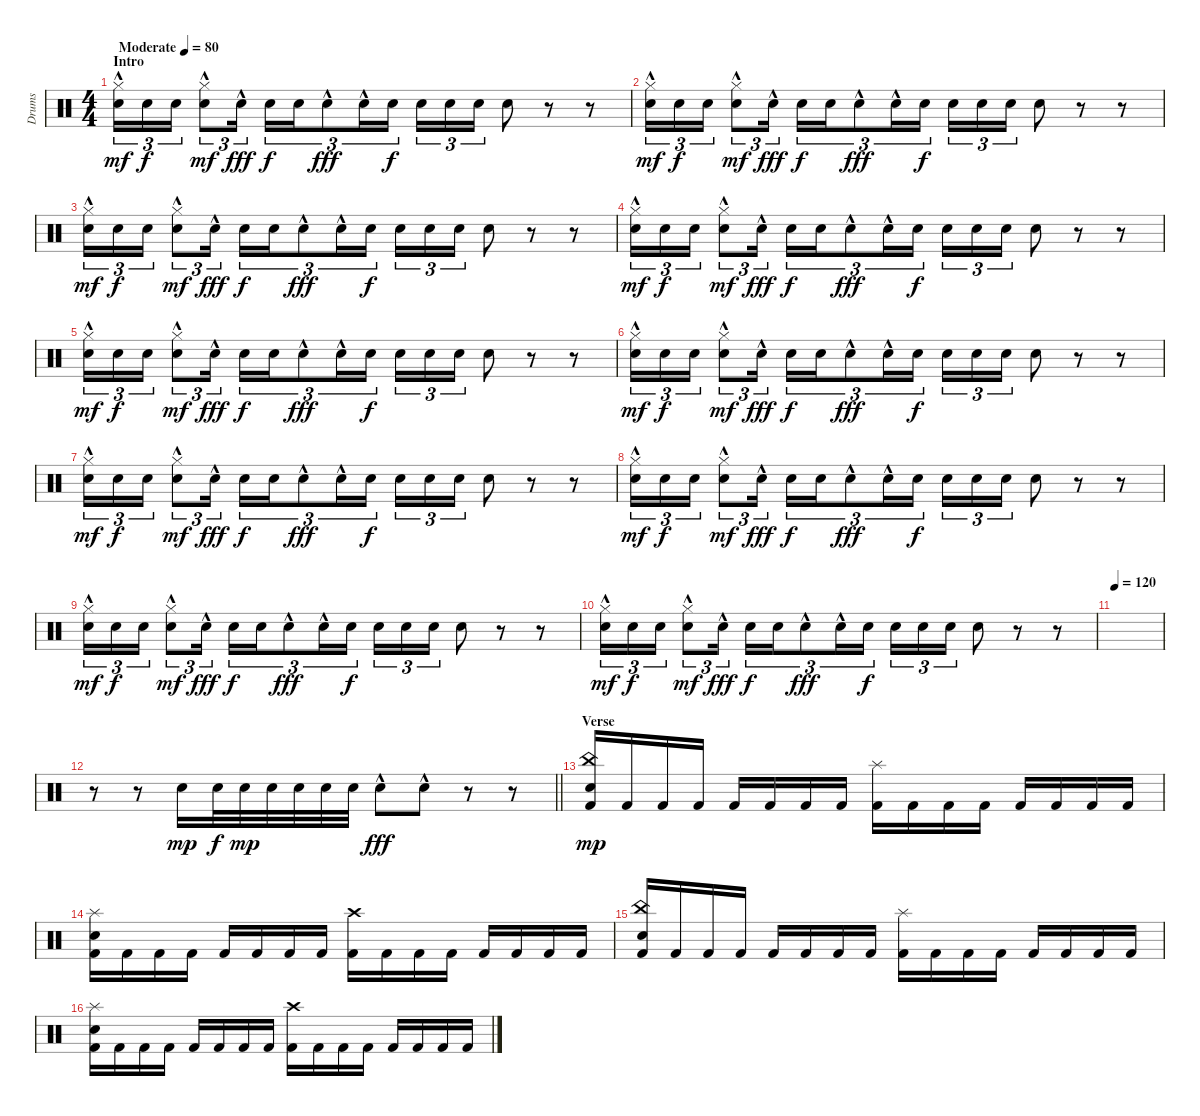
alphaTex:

\track ("Drums" "Drums") {instrument percussion}
\staff {score}
\articulation defaults
\ts (4 4)
\section ("" "Intro")
\tempo (80 "Moderate")
\clef neutral
\ks c
("Hi-Hat (closed)"{hac} "Snare (hit) 2").16{tu (3 2) dy mf volume 5} "Snare (hit) 2".16{tu (3 2) dy f} "Snare (hit) 2".16{tu (3 2)} ("Hi-Hat (closed)"{hac} "Snare (hit) 2").8{tu (3 2) dy mf} "Electric Snare (hit)"{hac}.16{tu (3 2) dy fff} "Electric Snare (hit)".16{tu (3 2) dy f} "Electric Snare (hit)".16{tu (3 2)} "Electric Snare (hit)"{hac}.8{tu (3 2) dy fff} "Electric Snare (hit)"{hac}.16{tu (3 2)} "Electric Snare (hit)".16{tu (3 2) dy f} "Electric Snare (hit)".16{tu (3 2)} "Electric Snare (hit)".16{tu (3 2)} "Electric Snare (hit)".16{tu (3 2)} "Electric Snare (hit)".8 r.8 r.8 |
("Hi-Hat (closed)"{hac} "Snare (hit) 2").16{tu (3 2) dy mf} "Snare (hit) 2".16{tu (3 2) dy f} "Snare (hit) 2".16{tu (3 2)} ("Hi-Hat (closed)"{hac} "Snare (hit) 2").8{tu (3 2) dy mf} "Electric Snare (hit)"{hac}.16{tu (3 2) dy fff} "Electric Snare (hit)".16{tu (3 2) dy f} "Electric Snare (hit)".16{tu (3 2)} "Electric Snare (hit)"{hac}.8{tu (3 2) dy fff} "Electric Snare (hit)"{hac}.16{tu (3 2)} "Electric Snare (hit)".16{tu (3 2) dy f} "Electric Snare (hit)".16{tu (3 2)} "Electric Snare (hit)".16{tu (3 2)} "Electric Snare (hit)".16{tu (3 2)} "Electric Snare (hit)".8 r.8 r.8 |
("Hi-Hat (closed)"{hac} "Snare (hit) 2").16{tu (3 2) dy mf} "Snare (hit) 2".16{tu (3 2) dy f} "Snare (hit) 2".16{tu (3 2)} ("Hi-Hat (closed)"{hac} "Snare (hit) 2").8{tu (3 2) dy mf} "Electric Snare (hit)"{hac}.16{tu (3 2) dy fff} "Electric Snare (hit)".16{tu (3 2) dy f} "Electric Snare (hit)".16{tu (3 2)} "Electric Snare (hit)"{hac}.8{tu (3 2) dy fff} "Electric Snare (hit)"{hac}.16{tu (3 2)} "Electric Snare (hit)".16{tu (3 2) dy f} "Electric Snare (hit)".16{tu (3 2)} "Electric Snare (hit)".16{tu (3 2)} "Electric Snare (hit)".16{tu (3 2)} "Electric Snare (hit)".8 r.8 r.8 |
("Hi-Hat (closed)"{hac} "Snare (hit) 2").16{tu (3 2) dy mf} "Snare (hit) 2".16{tu (3 2) dy f} "Snare (hit) 2".16{tu (3 2)} ("Hi-Hat (closed)"{hac} "Snare (hit) 2").8{tu (3 2) dy mf} "Electric Snare (hit)"{hac}.16{tu (3 2) dy fff} "Electric Snare (hit)".16{tu (3 2) dy f} "Electric Snare (hit)".16{tu (3 2)} "Electric Snare (hit)"{hac}.8{tu (3 2) dy fff} "Electric Snare (hit)"{hac}.16{tu (3 2)} "Electric Snare (hit)".16{tu (3 2) dy f} "Electric Snare (hit)".16{tu (3 2)} "Electric Snare (hit)".16{tu (3 2)} "Electric Snare (hit)".16{tu (3 2)} "Electric Snare (hit)".8 r.8 r.8 |
("Hi-Hat (closed)"{hac} "Snare (hit) 2").16{tu (3 2) dy mf volume 10} "Snare (hit) 2".16{tu (3 2) dy f} "Snare (hit) 2".16{tu (3 2)} ("Hi-Hat (closed)"{hac} "Snare (hit) 2").8{tu (3 2) dy mf} "Electric Snare (hit)"{hac}.16{tu (3 2) dy fff} "Electric Snare (hit)".16{tu (3 2) dy f} "Electric Snare (hit)".16{tu (3 2)} "Electric Snare (hit)"{hac}.8{tu (3 2) dy fff} "Electric Snare (hit)"{hac}.16{tu (3 2)} "Electric Snare (hit)".16{tu (3 2) dy f} "Electric Snare (hit)".16{tu (3 2)} "Electric Snare (hit)".16{tu (3 2)} "Electric Snare (hit)".16{tu (3 2)} "Electric Snare (hit)".8 r.8 r.8 |
("Hi-Hat (closed)"{hac} "Snare (hit) 2").16{tu (3 2) dy mf} "Snare (hit) 2".16{tu (3 2) dy f} "Snare (hit) 2".16{tu (3 2)} ("Hi-Hat (closed)"{hac} "Snare (hit) 2").8{tu (3 2) dy mf} "Electric Snare (hit)"{hac}.16{tu (3 2) dy fff} "Electric Snare (hit)".16{tu (3 2) dy f} "Electric Snare (hit)".16{tu (3 2)} "Electric Snare (hit)"{hac}.8{tu (3 2) dy fff} "Electric Snare (hit)"{hac}.16{tu (3 2)} "Electric Snare (hit)".16{tu (3 2) dy f} "Electric Snare (hit)".16{tu (3 2)} "Electric Snare (hit)".16{tu (3 2)} "Electric Snare (hit)".16{tu (3 2)} "Electric Snare (hit)".8 r.8 r.8 |
("Hi-Hat (closed)"{hac} "Snare (hit) 2").16{tu (3 2) dy mf} "Snare (hit) 2".16{tu (3 2) dy f} "Snare (hit) 2".16{tu (3 2)} ("Hi-Hat (closed)"{hac} "Snare (hit) 2").8{tu (3 2) dy mf} "Electric Snare (hit)"{hac}.16{tu (3 2) dy fff} "Electric Snare (hit)".16{tu (3 2) dy f} "Electric Snare (hit)".16{tu (3 2)} "Electric Snare (hit)"{hac}.8{tu (3 2) dy fff} "Electric Snare (hit)"{hac}.16{tu (3 2)} "Electric Snare (hit)".16{tu (3 2) dy f} "Electric Snare (hit)".16{tu (3 2)} "Electric Snare (hit)".16{tu (3 2)} "Electric Snare (hit)".16{tu (3 2)} "Electric Snare (hit)".8 r.8 r.8 |
("Hi-Hat (closed)"{hac} "Snare (hit) 2").16{tu (3 2) dy mf} "Snare (hit) 2".16{tu (3 2) dy f} "Snare (hit) 2".16{tu (3 2)} ("Hi-Hat (closed)"{hac} "Snare (hit) 2").8{tu (3 2) dy mf} "Electric Snare (hit)"{hac}.16{tu (3 2) dy fff} "Electric Snare (hit)".16{tu (3 2) dy f} "Electric Snare (hit)".16{tu (3 2)} "Electric Snare (hit)"{hac}.8{tu (3 2) dy fff} "Electric Snare (hit)"{hac}.16{tu (3 2)} "Electric Snare (hit)".16{tu (3 2) dy f} "Electric Snare (hit)".16{tu (3 2)} "Electric Snare (hit)".16{tu (3 2)} "Electric Snare (hit)".16{tu (3 2)} "Electric Snare (hit)".8 r.8 r.8 |
("Hi-Hat (closed)"{hac} "Snare (hit) 2").16{tu (3 2) dy mf volume 11} "Snare (hit) 2".16{tu (3 2) dy f} "Snare (hit) 2".16{tu (3 2)} ("Hi-Hat (closed)"{hac} "Snare (hit) 2").8{tu (3 2) dy mf} "Electric Snare (hit)"{hac}.16{tu (3 2) dy fff} "Electric Snare (hit)".16{tu (3 2) dy f} "Electric Snare (hit)".16{tu (3 2)} "Electric Snare (hit)"{hac}.8{tu (3 2) dy fff} "Electric Snare (hit)"{hac}.16{tu (3 2)} "Electric Snare (hit)".16{tu (3 2) dy f} "Electric Snare (hit)".16{tu (3 2)} "Electric Snare (hit)".16{tu (3 2)} "Electric Snare (hit)".16{tu (3 2)} "Electric Snare (hit)".8 r.8 r.8 |
("Hi-Hat (closed)"{hac} "Snare (hit) 2").16{tu (3 2) dy mf} "Snare (hit) 2".16{tu (3 2) dy f} "Snare (hit) 2".16{tu (3 2)} ("Hi-Hat (closed)"{hac} "Snare (hit) 2").8{tu (3 2) dy mf} "Electric Snare (hit)"{hac}.16{tu (3 2) dy fff} "Electric Snare (hit)".16{tu (3 2) dy f} "Electric Snare (hit)".16{tu (3 2)} "Electric Snare (hit)"{hac}.8{tu (3 2) dy fff} "Electric Snare (hit)"{hac}.16{tu (3 2)} "Electric Snare (hit)".16{tu (3 2) dy f} "Electric Snare (hit)".16{tu (3 2)} "Electric Snare (hit)".16{tu (3 2)} "Electric Snare (hit)".16{tu (3 2)} "Electric Snare (hit)".8 r.8 r.8 |
\tempo 120
|
\barLineRight lightlight
r.8 r.8 "Electric Snare (hit)".16{dy mp} "Electric Snare (hit)".32{dy f} "Electric Snare (hit)".32{dy mp} "Electric Snare (hit)".32 "Electric Snare (hit)".32 "Electric Snare (hit)".32 "Electric Snare (hit)".32 "Electric Snare (hit)"{hac}.8{dy fff} "Electric Snare (hit)"{hac}.8 r.8 r.8 |
\section ("" "Verse")
("China (hit)" "Electric Snare (hit)" "Kick (hit) 2").16{dy mp} "Kick (hit) 2".16 "Kick (hit) 2".16 "Kick (hit) 2".16 "Kick (hit) 2".16 "Kick (hit) 2".16 "Kick (hit) 2".16 "Kick (hit) 2".16 ("Splash (hit)" "Kick (hit) 2").16 "Kick (hit) 2".16 "Kick (hit) 2".16 "Kick (hit) 2".16 "Kick (hit) 2".16 "Kick (hit) 2".16 "Kick (hit) 2".16 "Kick (hit) 2".16 |
("Splash (hit)" "Electric Snare (hit)" "Kick (hit) 2").16 "Kick (hit) 2".16 "Kick (hit) 2".16 "Kick (hit) 2".16 "Kick (hit) 2".16 "Kick (hit) 2".16 "Kick (hit) 2".16 "Kick (hit) 2".16 ("Crash high (hit)" "Kick (hit) 2").16 "Kick (hit) 2".16 "Kick (hit) 2".16 "Kick (hit) 2".16 "Kick (hit) 2".16 "Kick (hit) 2".16 "Kick (hit) 2".16 "Kick (hit) 2".16 |
("China (hit)" "Electric Snare (hit)" "Kick (hit) 2").16 "Kick (hit) 2".16 "Kick (hit) 2".16 "Kick (hit) 2".16 "Kick (hit) 2".16 "Kick (hit) 2".16 "Kick (hit) 2".16 "Kick (hit) 2".16 ("Splash (hit)" "Kick (hit) 2").16 "Kick (hit) 2".16 "Kick (hit) 2".16 "Kick (hit) 2".16 "Kick (hit) 2".16 "Kick (hit) 2".16 "Kick (hit) 2".16 "Kick (hit) 2".16 |
("Splash (hit)" "Electric Snare (hit)" "Kick (hit) 2").16 "Kick (hit) 2".16 "Kick (hit) 2".16 "Kick (hit) 2".16 "Kick (hit) 2".16 "Kick (hit) 2".16 "Kick (hit) 2".16 "Kick (hit) 2".16 ("Crash high (hit)" "Kick (hit) 2").16 "Kick (hit) 2".16 "Kick (hit) 2".16 "Kick (hit) 2".16 "Kick (hit) 2".16 "Kick (hit) 2".16 "Kick (hit) 2".16 "Kick (hit) 2".16
